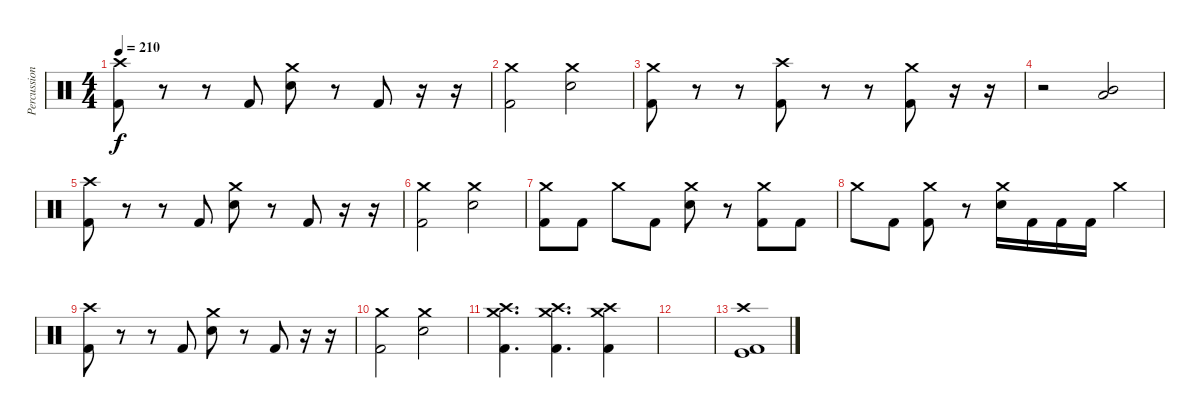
\track ("Percussions" "Percussion") {instrument percussion}
\staff {score}
\articulation defaults
\ts (4 4)
\tempo 210
\clef neutral
\ks c
("Kick (hit) 2" "Crash high (hit)").8{dy f} r.8 r.8 "Kick (hit) 2".8 ("Electric Snare (hit)" "Crash medium (hit)").8 r.8 "Kick (hit) 2".8 r.16 r.16 |
("Kick (hit) 2" "Crash medium (hit)").2 ("Electric Snare (hit)" "Crash medium (hit)").2 |
("Kick (hit) 2" "Crash medium (hit)").8 r.8 r.8 ("Kick (hit) 2" "Crash high (hit)").8 r.8 r.8 ("Kick (hit) 2" "Crash medium (hit)").8 r.16 r.16 |
r.2 ("Low Tom (hit)" "Mid Tom (hit)").2 |
("Kick (hit) 2" "Crash high (hit)").8 r.8 r.8 "Kick (hit) 2".8 ("Electric Snare (hit)" "Crash medium (hit)").8 r.8 "Kick (hit) 2".8 r.16 r.16 |
("Kick (hit) 2" "Crash medium (hit)").2 ("Electric Snare (hit)" "Crash medium (hit)").2 |
("Kick (hit) 2" "Crash medium (hit)").8 "Kick (hit) 2".8 "Crash medium (hit)".8 "Kick (hit) 2".8 ("Electric Snare (hit)" "Crash medium (hit)").8 r.8 ("Kick (hit) 2" "Crash medium (hit)").8 "Kick (hit) 2".8 |
"Crash medium (hit)".8 "Kick (hit) 2".8 ("Kick (hit) 2" "Crash medium (hit)").8 r.8 ("Electric Snare (hit)" "Crash medium (hit)").16 "Kick (hit) 2".16 "Kick (hit) 2".16 "Kick (hit) 2".16 "Crash medium (hit)".4 |
("Kick (hit) 2" "Crash high (hit)").8 r.8 r.8 "Kick (hit) 2".8 ("Electric Snare (hit)" "Crash medium (hit)").8 r.8 "Kick (hit) 2".8 r.16 r.16 |
("Kick (hit) 2" "Crash medium (hit)").2 ("Electric Snare (hit)" "Crash medium (hit)").2 |
("Kick (hit) 2" "Crash high (hit)" "Crash medium (hit)").4{d} ("Kick (hit) 2" "Crash high (hit)" "Crash medium (hit)").4{d} ("Kick (hit) 2" "Crash high (hit)" "Crash medium (hit)").4 |
|
("Kick (hit) 2" "Kick (hit)" "Crash high (hit)").1
